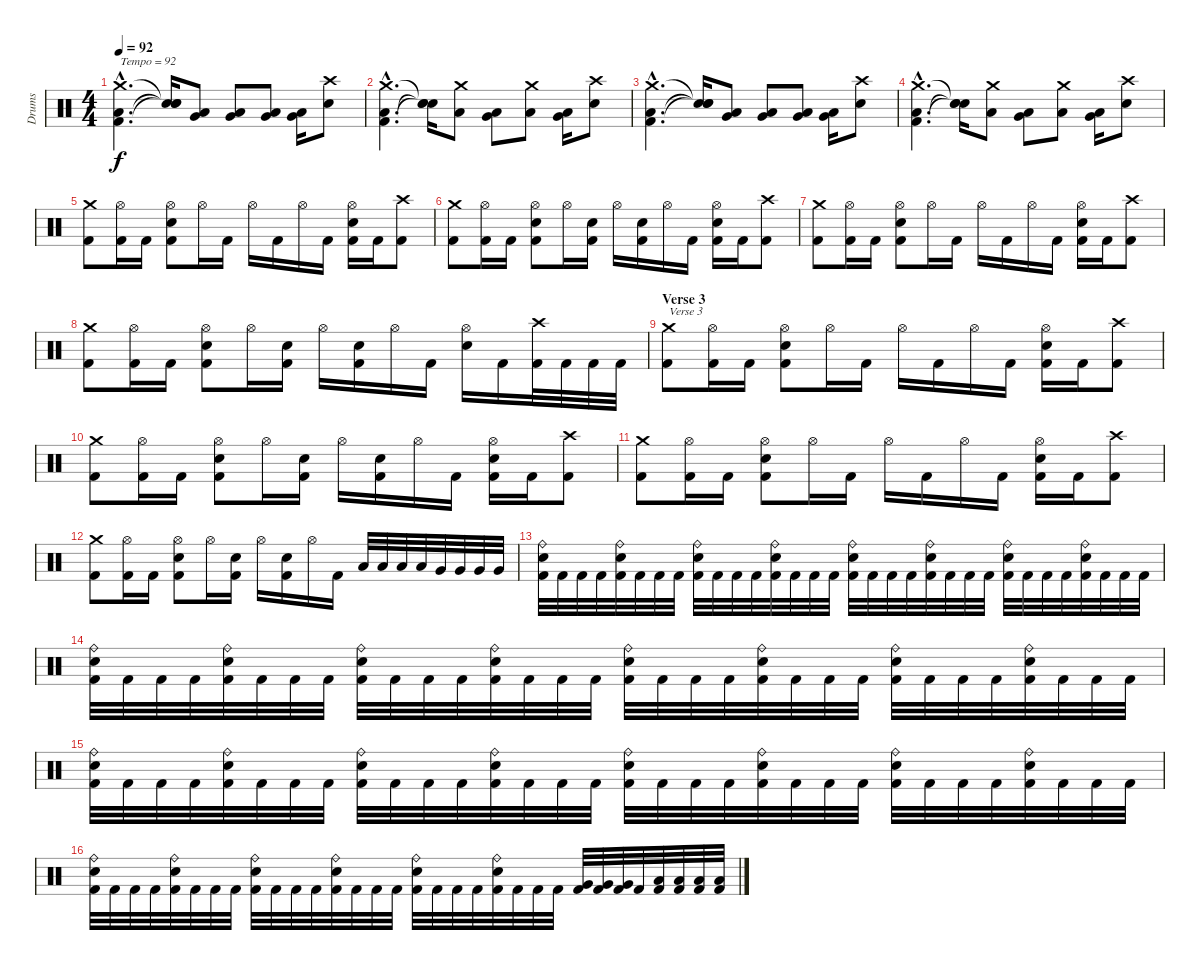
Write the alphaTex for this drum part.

\track ("Drums" "Drums") {instrument percussion}
\staff {score}
\articulation defaults
\ts (4 4)
\tempo 92
\clef neutral
\ks c
("Crash medium (hit)"{hac} "Low Floor Tom (hit)"{hac} "Kick (hit) 2"{hac}).4{d txt "Tempo = 92" dy f} ("Snare (hit)"{t} "Snare (hit)"{t} "Snare (hit)"{t}).16 ("Very Low Tom (hit)" "Low Floor Tom (hit)").8 ("Very Low Tom (hit)" "Low Floor Tom (hit)").8 ("Very Low Tom (hit)" "Low Floor Tom (hit)").8 ("Very Low Tom (hit)" "Low Floor Tom (hit)").16 ("Crash high (hit)" "Electric Snare (hit)").8 |
("Crash medium (hit)"{hac} "Low Floor Tom (hit)"{hac} "Kick (hit) 2"{hac}).4{d} ("Snare (hit)"{t} "Snare (hit)"{t} "Snare (hit)"{t}).16 ("Crash medium (hit)" "Low Floor Tom (hit)").8 ("Very Low Tom (hit)" "Low Floor Tom (hit)").8 ("Crash medium (hit)" "Low Floor Tom (hit)").8 ("Very Low Tom (hit)" "Low Floor Tom (hit)").16 ("Crash high (hit)" "Electric Snare (hit)").8 |
("Crash medium (hit)"{hac} "Low Floor Tom (hit)"{hac} "Kick (hit) 2"{hac}).4{d} ("Snare (hit)"{t} "Snare (hit)"{t} "Snare (hit)"{t}).16 ("Very Low Tom (hit)" "Low Floor Tom (hit)").8 ("Very Low Tom (hit)" "Low Floor Tom (hit)").8 ("Very Low Tom (hit)" "Low Floor Tom (hit)").8 ("Very Low Tom (hit)" "Low Floor Tom (hit)").16 ("Crash high (hit)" "Electric Snare (hit)").8 |
("Crash medium (hit)"{hac} "Low Floor Tom (hit)"{hac} "Kick (hit) 2"{hac}).4{d} ("Snare (hit)"{t} "Snare (hit)"{t} "Snare (hit)"{t}).16 ("Crash medium (hit)" "Low Floor Tom (hit)").8 ("Very Low Tom (hit)" "Low Floor Tom (hit)").8 ("Crash medium (hit)" "Low Floor Tom (hit)").8 ("Very Low Tom (hit)" "Low Floor Tom (hit)").16 ("Crash high (hit)" "Electric Snare (hit)").8 |
("Crash medium (hit)" "Kick (hit) 2").8 ("Hi-Hat (open)" "Kick (hit) 2").16 "Kick (hit) 2".16 ("Hi-Hat (open)" "Electric Snare (hit)" "Kick (hit) 2").8 "Hi-Hat (open)".16 "Kick (hit) 2".16 "Hi-Hat (open)".16 "Kick (hit) 2".16 "Hi-Hat (open)".16 "Kick (hit) 2".16 ("Hi-Hat (open)" "Electric Snare (hit)" "Kick (hit) 2").16 "Kick (hit) 2".16 ("Crash high (hit)" "Kick (hit) 2").8 |
("Crash medium (hit)" "Kick (hit) 2").8 ("Hi-Hat (open)" "Kick (hit) 2").16 "Kick (hit) 2".16 ("Hi-Hat (open)" "Electric Snare (hit)" "Kick (hit) 2").8 "Hi-Hat (open)".16 ("Electric Snare (hit)" "Kick (hit) 2").16 "Hi-Hat (open)".16 ("Electric Snare (hit)" "Kick (hit) 2").16 "Hi-Hat (open)".16 "Kick (hit) 2".16 ("Hi-Hat (open)" "Electric Snare (hit)" "Kick (hit) 2").16 "Kick (hit) 2".16 ("Crash high (hit)" "Kick (hit) 2").8 |
("Crash medium (hit)" "Kick (hit) 2").8 ("Hi-Hat (open)" "Kick (hit) 2").16 "Kick (hit) 2".16 ("Hi-Hat (open)" "Electric Snare (hit)" "Kick (hit) 2").8 "Hi-Hat (open)".16 "Kick (hit) 2".16 "Hi-Hat (open)".16 "Kick (hit) 2".16 "Hi-Hat (open)".16 "Kick (hit) 2".16 ("Hi-Hat (open)" "Electric Snare (hit)" "Kick (hit) 2").16 "Kick (hit) 2".16 ("Crash high (hit)" "Kick (hit) 2").8 |
("Crash medium (hit)" "Kick (hit) 2").8 ("Hi-Hat (open)" "Kick (hit) 2").16 "Kick (hit) 2".16 ("Hi-Hat (open)" "Electric Snare (hit)" "Kick (hit) 2").8 "Hi-Hat (open)".16 ("Electric Snare (hit)" "Kick (hit) 2").16 "Hi-Hat (open)".16 ("Electric Snare (hit)" "Kick (hit) 2").16 "Hi-Hat (open)".16 "Kick (hit) 2".16 ("Hi-Hat (open)" "Electric Snare (hit)").16 "Kick (hit) 2".16 ("Crash high (hit)" "Kick (hit) 2").32 "Kick (hit) 2".32 "Kick (hit) 2".32 "Kick (hit) 2".32 |
\section ("" "Verse 3")
("Crash medium (hit)" "Kick (hit) 2").8{txt "Verse 3"} ("Hi-Hat (open)" "Kick (hit) 2").16 "Kick (hit) 2".16 ("Hi-Hat (open)" "Electric Snare (hit)" "Kick (hit) 2").8 "Hi-Hat (open)".16 "Kick (hit) 2".16 "Hi-Hat (open)".16 "Kick (hit) 2".16 "Hi-Hat (open)".16 "Kick (hit) 2".16 ("Hi-Hat (open)" "Electric Snare (hit)" "Kick (hit) 2").16 "Kick (hit) 2".16 ("Crash high (hit)" "Kick (hit) 2").8 |
("Crash medium (hit)" "Kick (hit) 2").8 ("Hi-Hat (open)" "Kick (hit) 2").16 "Kick (hit) 2".16 ("Hi-Hat (open)" "Electric Snare (hit)" "Kick (hit) 2").8 "Hi-Hat (open)".16 ("Electric Snare (hit)" "Kick (hit) 2").16 "Hi-Hat (open)".16 ("Electric Snare (hit)" "Kick (hit) 2").16 "Hi-Hat (open)".16 "Kick (hit) 2".16 ("Hi-Hat (open)" "Electric Snare (hit)" "Kick (hit) 2").16 "Kick (hit) 2".16 ("Crash high (hit)" "Kick (hit) 2").8 |
("Crash medium (hit)" "Kick (hit) 2").8 ("Hi-Hat (open)" "Kick (hit) 2").16 "Kick (hit) 2".16 ("Hi-Hat (open)" "Electric Snare (hit)" "Kick (hit) 2").8 "Hi-Hat (open)".16 "Kick (hit) 2".16 "Hi-Hat (open)".16 "Kick (hit) 2".16 "Hi-Hat (open)".16 "Kick (hit) 2".16 ("Hi-Hat (open)" "Electric Snare (hit)" "Kick (hit) 2").16 "Kick (hit) 2".16 ("Crash high (hit)" "Kick (hit) 2").8 |
("Crash medium (hit)" "Kick (hit) 2").8 ("Hi-Hat (open)" "Kick (hit) 2").16 "Kick (hit) 2".16 ("Hi-Hat (open)" "Electric Snare (hit)" "Kick (hit) 2").8 "Hi-Hat (open)".16 ("Electric Snare (hit)" "Kick (hit) 2").16 "Hi-Hat (open)".16 ("Electric Snare (hit)" "Kick (hit) 2").16 "Hi-Hat (open)".16 "Kick (hit) 2".16 "Low Floor Tom (hit)".32 "Low Floor Tom (hit)".32 "Low Floor Tom (hit)".32 "Low Floor Tom (hit)".32 "Very Low Tom (hit)".32 "Very Low Tom (hit)".32 "Very Low Tom (hit)".32 "Very Low Tom (hit)".32 |
("Ride (bell)" "Electric Snare (hit)" "Kick (hit) 2").32 "Kick (hit) 2".32 "Kick (hit) 2".32 "Kick (hit) 2".32 ("Ride (bell)" "Electric Snare (hit)" "Kick (hit) 2").32 "Kick (hit) 2".32 "Kick (hit) 2".32 "Kick (hit) 2".32 ("Ride (bell)" "Electric Snare (hit)" "Kick (hit) 2").32 "Kick (hit) 2".32 "Kick (hit) 2".32 "Kick (hit) 2".32 ("Ride (bell)" "Electric Snare (hit)" "Kick (hit) 2").32 "Kick (hit) 2".32 "Kick (hit) 2".32 "Kick (hit) 2".32 ("Ride (bell)" "Electric Snare (hit)" "Kick (hit) 2").32 "Kick (hit) 2".32 "Kick (hit) 2".32 "Kick (hit) 2".32 ("Ride (bell)" "Electric Snare (hit)" "Kick (hit) 2").32 "Kick (hit) 2".32 "Kick (hit) 2".32 "Kick (hit) 2".32 ("Ride (bell)" "Electric Snare (hit)" "Kick (hit) 2").32 "Kick (hit) 2".32 "Kick (hit) 2".32 "Kick (hit) 2".32 ("Ride (bell)" "Electric Snare (hit)" "Kick (hit) 2").32 "Kick (hit) 2".32 "Kick (hit) 2".32 "Kick (hit) 2".32 |
("Ride (bell)" "Electric Snare (hit)" "Kick (hit) 2").32 "Kick (hit) 2".32 "Kick (hit) 2".32 "Kick (hit) 2".32 ("Ride (bell)" "Electric Snare (hit)" "Kick (hit) 2").32 "Kick (hit) 2".32 "Kick (hit) 2".32 "Kick (hit) 2".32 ("Ride (bell)" "Electric Snare (hit)" "Kick (hit) 2").32 "Kick (hit) 2".32 "Kick (hit) 2".32 "Kick (hit) 2".32 ("Ride (bell)" "Electric Snare (hit)" "Kick (hit) 2").32 "Kick (hit) 2".32 "Kick (hit) 2".32 "Kick (hit) 2".32 ("Ride (bell)" "Electric Snare (hit)" "Kick (hit) 2").32 "Kick (hit) 2".32 "Kick (hit) 2".32 "Kick (hit) 2".32 ("Ride (bell)" "Electric Snare (hit)" "Kick (hit) 2").32 "Kick (hit) 2".32 "Kick (hit) 2".32 "Kick (hit) 2".32 ("Ride (bell)" "Electric Snare (hit)" "Kick (hit) 2").32 "Kick (hit) 2".32 "Kick (hit) 2".32 "Kick (hit) 2".32 ("Ride (bell)" "Electric Snare (hit)" "Kick (hit) 2").32 "Kick (hit) 2".32 "Kick (hit) 2".32 "Kick (hit) 2".32 |
("Ride (bell)" "Electric Snare (hit)" "Kick (hit) 2").32 "Kick (hit) 2".32 "Kick (hit) 2".32 "Kick (hit) 2".32 ("Ride (bell)" "Electric Snare (hit)" "Kick (hit) 2").32 "Kick (hit) 2".32 "Kick (hit) 2".32 "Kick (hit) 2".32 ("Ride (bell)" "Electric Snare (hit)" "Kick (hit) 2").32 "Kick (hit) 2".32 "Kick (hit) 2".32 "Kick (hit) 2".32 ("Ride (bell)" "Electric Snare (hit)" "Kick (hit) 2").32 "Kick (hit) 2".32 "Kick (hit) 2".32 "Kick (hit) 2".32 ("Ride (bell)" "Electric Snare (hit)" "Kick (hit) 2").32 "Kick (hit) 2".32 "Kick (hit) 2".32 "Kick (hit) 2".32 ("Ride (bell)" "Electric Snare (hit)" "Kick (hit) 2").32 "Kick (hit) 2".32 "Kick (hit) 2".32 "Kick (hit) 2".32 ("Ride (bell)" "Electric Snare (hit)" "Kick (hit) 2").32 "Kick (hit) 2".32 "Kick (hit) 2".32 "Kick (hit) 2".32 ("Ride (bell)" "Electric Snare (hit)" "Kick (hit) 2").32 "Kick (hit) 2".32 "Kick (hit) 2".32 "Kick (hit) 2".32 |
("Ride (bell)" "Electric Snare (hit)" "Kick (hit) 2").32 "Kick (hit) 2".32 "Kick (hit) 2".32 "Kick (hit) 2".32 ("Ride (bell)" "Electric Snare (hit)" "Kick (hit) 2").32 "Kick (hit) 2".32 "Kick (hit) 2".32 "Kick (hit) 2".32 ("Ride (bell)" "Electric Snare (hit)" "Kick (hit) 2").32 "Kick (hit) 2".32 "Kick (hit) 2".32 "Kick (hit) 2".32 ("Ride (bell)" "Electric Snare (hit)" "Kick (hit) 2").32 "Kick (hit) 2".32 "Kick (hit) 2".32 "Kick (hit) 2".32 ("Ride (bell)" "Electric Snare (hit)" "Kick (hit) 2").32 "Kick (hit) 2".32 "Kick (hit) 2".32 "Kick (hit) 2".32 ("Ride (bell)" "Electric Snare (hit)" "Kick (hit) 2").32 "Kick (hit) 2".32 "Kick (hit) 2".32 "Kick (hit) 2".32 ("Very Low Tom (hit)" "Kick (hit) 2").32 ("Very Low Tom (hit)" "Kick (hit) 2").32 ("Very Low Tom (hit)" "Kick (hit) 2").32 "Kick (hit) 2".32 ("Low Floor Tom (hit)" "Kick (hit) 2").32 ("Low Floor Tom (hit)" "Kick (hit) 2").32 ("Low Floor Tom (hit)" "Kick (hit) 2").32 ("Low Floor Tom (hit)" "Kick (hit) 2").32
